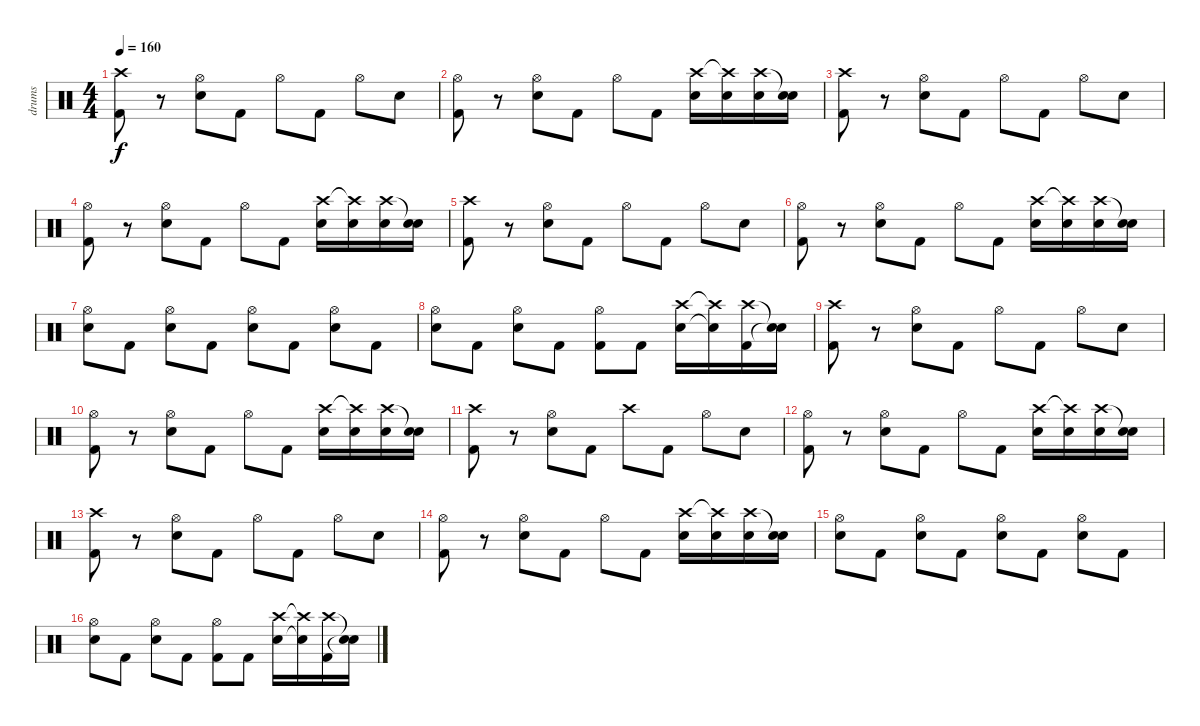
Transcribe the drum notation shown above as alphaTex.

\track ("drums" "drums") {instrument percussion}
\staff {score}
\articulation defaults
\ts (4 4)
\tempo 160
\clef neutral
\ks c
("Crash high (hit)" "Kick (hit) 2").8{dy f} r.8 ("Hi-Hat (open)" "Electric Snare (hit)").8 "Kick (hit) 2".8 "Hi-Hat (open)".8 "Kick (hit) 2".8 "Hi-Hat (open)".8 "Electric Snare (hit)".8 |
("Hi-Hat (open)" "Kick (hit) 2").8 r.8 ("Hi-Hat (open)" "Electric Snare (hit)").8 "Kick (hit) 2".8 "Hi-Hat (open)".8 "Kick (hit) 2".8 ("Crash high (hit)" "Electric Snare (hit)").16 ("Crash high (hit)"{t} "Electric Snare (hit)").16 ("Crash high (hit)" "Electric Snare (hit)").16 ("Snare (hit)"{t} "Electric Snare (hit)").16 |
("Crash high (hit)" "Kick (hit) 2").8 r.8 ("Hi-Hat (open)" "Electric Snare (hit)").8 "Kick (hit) 2".8 "Hi-Hat (open)".8 "Kick (hit) 2".8 "Hi-Hat (open)".8 "Electric Snare (hit)".8 |
("Hi-Hat (open)" "Kick (hit) 2").8 r.8 ("Hi-Hat (open)" "Electric Snare (hit)").8 "Kick (hit) 2".8 "Hi-Hat (open)".8 "Kick (hit) 2".8 ("Crash high (hit)" "Electric Snare (hit)").16 ("Crash high (hit)"{t} "Electric Snare (hit)").16 ("Crash high (hit)" "Electric Snare (hit)").16 ("Snare (hit)"{t} "Electric Snare (hit)").16 |
("Crash high (hit)" "Kick (hit) 2").8 r.8 ("Hi-Hat (open)" "Electric Snare (hit)").8 "Kick (hit) 2".8 "Hi-Hat (open)".8 "Kick (hit) 2".8 "Hi-Hat (open)".8 "Electric Snare (hit)".8 |
("Hi-Hat (open)" "Kick (hit) 2").8 r.8 ("Hi-Hat (open)" "Electric Snare (hit)").8 "Kick (hit) 2".8 "Hi-Hat (open)".8 "Kick (hit) 2".8 ("Crash high (hit)" "Electric Snare (hit)").16 ("Crash high (hit)"{t} "Electric Snare (hit)").16 ("Crash high (hit)" "Electric Snare (hit)").16 ("Snare (hit)"{t} "Electric Snare (hit)").16 |
("Hi-Hat (open)" "Electric Snare (hit)").8 "Kick (hit) 2".8 ("Hi-Hat (open)" "Electric Snare (hit)").8 "Kick (hit) 2".8 ("Hi-Hat (open)" "Electric Snare (hit)").8 "Kick (hit) 2".8 ("Hi-Hat (open)" "Electric Snare (hit)").8 "Kick (hit) 2".8 |
("Hi-Hat (open)" "Electric Snare (hit)").8 "Kick (hit) 2".8 ("Hi-Hat (open)" "Electric Snare (hit)").8 "Kick (hit) 2".8 ("Hi-Hat (open)" "Kick (hit) 2").8 "Kick (hit) 2".8 ("Crash high (hit)" "Electric Snare (hit)").16 ("Crash high (hit)"{t} "Electric Snare (hit)"{t}).16 ("Crash high (hit)" "Kick (hit) 2").16 ("Snare (hit)"{t} "Electric Snare (hit)"{t}).16 |
("Crash high (hit)" "Kick (hit) 2").8 r.8 ("Hi-Hat (open)" "Electric Snare (hit)").8 "Kick (hit) 2".8 "Hi-Hat (open)".8 "Kick (hit) 2".8 "Hi-Hat (open)".8 "Electric Snare (hit)".8 |
("Hi-Hat (open)" "Kick (hit) 2").8 r.8 ("Hi-Hat (open)" "Electric Snare (hit)").8 "Kick (hit) 2".8 "Hi-Hat (open)".8 "Kick (hit) 2".8 ("Crash high (hit)" "Electric Snare (hit)").16 ("Crash high (hit)"{t} "Electric Snare (hit)").16 ("Crash high (hit)" "Electric Snare (hit)").16 ("Snare (hit)"{t} "Electric Snare (hit)").16 |
("Crash high (hit)" "Kick (hit) 2").8 r.8 ("Hi-Hat (open)" "Electric Snare (hit)").8 "Kick (hit) 2".8 "Crash high (hit)".8 "Kick (hit) 2".8 "Hi-Hat (open)".8 "Electric Snare (hit)".8 |
("Hi-Hat (open)" "Kick (hit) 2").8 r.8 ("Hi-Hat (open)" "Electric Snare (hit)").8 "Kick (hit) 2".8 "Hi-Hat (open)".8 "Kick (hit) 2".8 ("Crash high (hit)" "Electric Snare (hit)").16 ("Crash high (hit)"{t} "Electric Snare (hit)").16 ("Crash high (hit)" "Electric Snare (hit)").16 ("Snare (hit)"{t} "Electric Snare (hit)").16 |
("Crash high (hit)" "Kick (hit) 2").8 r.8 ("Hi-Hat (open)" "Electric Snare (hit)").8 "Kick (hit) 2".8 "Hi-Hat (open)".8 "Kick (hit) 2".8 "Hi-Hat (open)".8 "Electric Snare (hit)".8 |
("Hi-Hat (open)" "Kick (hit) 2").8 r.8 ("Hi-Hat (open)" "Electric Snare (hit)").8 "Kick (hit) 2".8 "Hi-Hat (open)".8 "Kick (hit) 2".8 ("Crash high (hit)" "Electric Snare (hit)").16 ("Crash high (hit)"{t} "Electric Snare (hit)").16 ("Crash high (hit)" "Electric Snare (hit)").16 ("Snare (hit)"{t} "Electric Snare (hit)").16 |
("Hi-Hat (open)" "Electric Snare (hit)").8 "Kick (hit) 2".8 ("Hi-Hat (open)" "Electric Snare (hit)").8 "Kick (hit) 2".8 ("Hi-Hat (open)" "Electric Snare (hit)").8 "Kick (hit) 2".8 ("Hi-Hat (open)" "Electric Snare (hit)").8 "Kick (hit) 2".8 |
("Hi-Hat (open)" "Electric Snare (hit)").8 "Kick (hit) 2".8 ("Hi-Hat (open)" "Electric Snare (hit)").8 "Kick (hit) 2".8 ("Hi-Hat (open)" "Kick (hit) 2").8 "Kick (hit) 2".8 ("Crash high (hit)" "Electric Snare (hit)").16 ("Crash high (hit)"{t} "Electric Snare (hit)"{t}).16 ("Crash high (hit)" "Kick (hit) 2").16 ("Snare (hit)"{t} "Electric Snare (hit)"{t}).16
